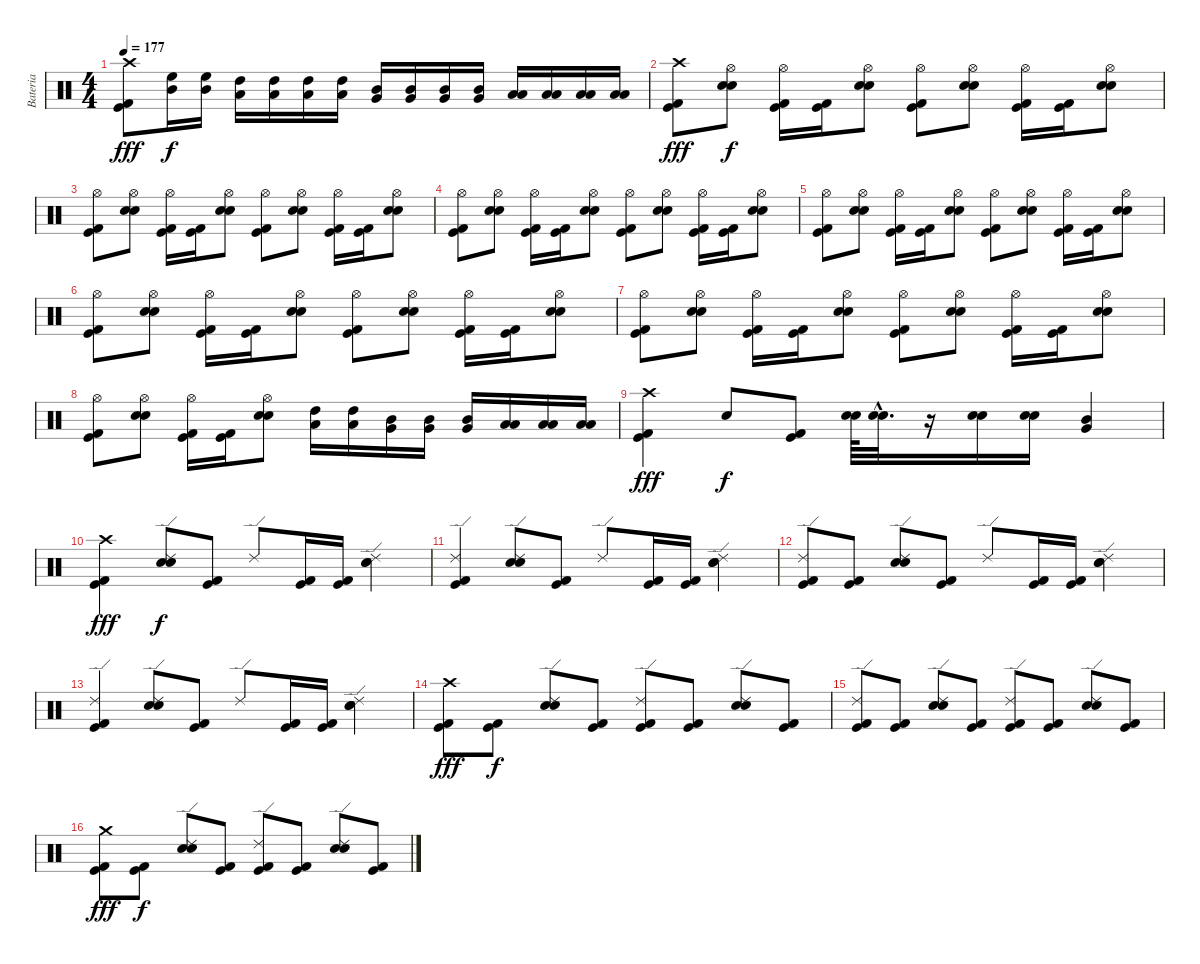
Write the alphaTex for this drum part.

\track ("Bateria" "Bateria") {instrument percussion}
\staff {score}
\articulation defaults
\ts (4 4)
\tempo 177
\clef neutral
\ks c
("Crash high (hit)" "Kick (hit) 2" "Kick (hit)").8{dy fff} ("High Floor Tom (hit)" "Mid Tom (hit)").16{dy f} ("High Floor Tom (hit)" "Mid Tom (hit)").16 ("High Tom (hit)" "Low Tom (hit)").16 ("High Tom (hit)" "Low Tom (hit)").16 ("High Tom (hit)" "Low Tom (hit)").16 ("High Tom (hit)" "Low Tom (hit)").16 ("Mid Tom (hit)" "Very Low Tom (hit)").16 ("Mid Tom (hit)" "Very Low Tom (hit)").16 ("Mid Tom (hit)" "Very Low Tom (hit)").16 ("Mid Tom (hit)" "Very Low Tom (hit)").16 ("Low Tom (hit)" "Low Floor Tom (hit)").16 ("Low Tom (hit)" "Low Floor Tom (hit)").16 ("Low Tom (hit)" "Low Floor Tom (hit)").16 ("Low Tom (hit)" "Low Floor Tom (hit)").16 |
("Crash high (hit)" "Kick (hit) 2" "Kick (hit)").8{dy fff} ("Hi-Hat (open)" "Electric Snare (hit)" "Snare (hit) 2").8{dy f} ("Hi-Hat (open)" "Kick (hit) 2" "Kick (hit)").16 ("Kick (hit) 2" "Kick (hit)").16 ("Hi-Hat (open)" "Electric Snare (hit)" "Snare (hit) 2").8 ("Hi-Hat (open)" "Kick (hit) 2" "Kick (hit)").8 ("Hi-Hat (open)" "Electric Snare (hit)" "Snare (hit) 2").8 ("Hi-Hat (open)" "Kick (hit) 2" "Kick (hit)").16 ("Kick (hit) 2" "Kick (hit)").16 ("Hi-Hat (open)" "Electric Snare (hit)" "Snare (hit) 2").8 |
("Hi-Hat (open)" "Kick (hit) 2" "Kick (hit)").8 ("Hi-Hat (open)" "Electric Snare (hit)" "Snare (hit) 2").8 ("Hi-Hat (open)" "Kick (hit) 2" "Kick (hit)").16 ("Kick (hit) 2" "Kick (hit)").16 ("Hi-Hat (open)" "Electric Snare (hit)" "Snare (hit) 2").8 ("Hi-Hat (open)" "Kick (hit) 2" "Kick (hit)").8 ("Hi-Hat (open)" "Electric Snare (hit)" "Snare (hit) 2").8 ("Hi-Hat (open)" "Kick (hit) 2" "Kick (hit)").16 ("Kick (hit) 2" "Kick (hit)").16 ("Hi-Hat (open)" "Electric Snare (hit)" "Snare (hit) 2").8 |
("Hi-Hat (open)" "Kick (hit) 2" "Kick (hit)").8 ("Hi-Hat (open)" "Electric Snare (hit)" "Snare (hit) 2").8 ("Hi-Hat (open)" "Kick (hit) 2" "Kick (hit)").16 ("Kick (hit) 2" "Kick (hit)").16 ("Hi-Hat (open)" "Electric Snare (hit)" "Snare (hit) 2").8 ("Hi-Hat (open)" "Kick (hit) 2" "Kick (hit)").8 ("Hi-Hat (open)" "Electric Snare (hit)" "Snare (hit) 2").8 ("Hi-Hat (open)" "Kick (hit) 2" "Kick (hit)").16 ("Kick (hit) 2" "Kick (hit)").16 ("Hi-Hat (open)" "Electric Snare (hit)" "Snare (hit) 2").8 |
("Hi-Hat (open)" "Kick (hit) 2" "Kick (hit)").8 ("Hi-Hat (open)" "Electric Snare (hit)" "Snare (hit) 2").8 ("Hi-Hat (open)" "Kick (hit) 2" "Kick (hit)").16 ("Kick (hit) 2" "Kick (hit)").16 ("Hi-Hat (open)" "Electric Snare (hit)" "Snare (hit) 2").8 ("Hi-Hat (open)" "Kick (hit) 2" "Kick (hit)").8 ("Hi-Hat (open)" "Electric Snare (hit)" "Snare (hit) 2").8 ("Hi-Hat (open)" "Kick (hit) 2" "Kick (hit)").16 ("Kick (hit) 2" "Kick (hit)").16 ("Hi-Hat (open)" "Electric Snare (hit)" "Snare (hit) 2").8 |
("Hi-Hat (open)" "Kick (hit) 2" "Kick (hit)").8 ("Hi-Hat (open)" "Electric Snare (hit)" "Snare (hit) 2").8 ("Hi-Hat (open)" "Kick (hit) 2" "Kick (hit)").16 ("Kick (hit) 2" "Kick (hit)").16 ("Hi-Hat (open)" "Electric Snare (hit)" "Snare (hit) 2").8 ("Hi-Hat (open)" "Kick (hit) 2" "Kick (hit)").8 ("Hi-Hat (open)" "Electric Snare (hit)" "Snare (hit) 2").8 ("Hi-Hat (open)" "Kick (hit) 2" "Kick (hit)").16 ("Kick (hit) 2" "Kick (hit)").16 ("Hi-Hat (open)" "Electric Snare (hit)" "Snare (hit) 2").8 |
("Hi-Hat (open)" "Kick (hit) 2" "Kick (hit)").8 ("Hi-Hat (open)" "Electric Snare (hit)" "Snare (hit) 2").8 ("Hi-Hat (open)" "Kick (hit) 2" "Kick (hit)").16 ("Kick (hit) 2" "Kick (hit)").16 ("Hi-Hat (open)" "Electric Snare (hit)" "Snare (hit) 2").8 ("Hi-Hat (open)" "Kick (hit) 2" "Kick (hit)").8 ("Hi-Hat (open)" "Electric Snare (hit)" "Snare (hit) 2").8 ("Hi-Hat (open)" "Kick (hit) 2" "Kick (hit)").16 ("Kick (hit) 2" "Kick (hit)").16 ("Hi-Hat (open)" "Electric Snare (hit)" "Snare (hit) 2").8 |
("Hi-Hat (open)" "Kick (hit) 2" "Kick (hit)").8 ("Hi-Hat (open)" "Electric Snare (hit)" "Snare (hit) 2").8 ("Hi-Hat (open)" "Kick (hit) 2" "Kick (hit)").16 ("Kick (hit) 2" "Kick (hit)").16 ("Hi-Hat (open)" "Electric Snare (hit)" "Snare (hit) 2").8 ("High Tom (hit)" "Low Tom (hit)").16 ("High Tom (hit)" "Low Tom (hit)").16 ("Mid Tom (hit)" "Very Low Tom (hit)").16 ("Mid Tom (hit)" "Very Low Tom (hit)").16 ("Mid Tom (hit)" "Very Low Tom (hit)").16 ("Low Tom (hit)" "Low Floor Tom (hit)").16 ("Low Tom (hit)" "Low Floor Tom (hit)").16 ("Low Tom (hit)" "Low Floor Tom (hit)").16 |
("Crash high (hit)" "Kick (hit) 2" "Kick (hit)").4{dy fff} "Snare (hit)"{x}.8{dy f} ("Kick (hit) 2" "Kick (hit)").8 ("Electric Snare (hit)" "Snare (hit) 2").64 ("Electric Snare (hit)"{hac} "Snare (hit) 2"{hac}).32{d} r.16 ("Electric Snare (hit)" "Snare (hit) 2").16 ("Electric Snare (hit)" "Snare (hit) 2").16 ("Mid Tom (hit)" "Very Low Tom (hit)").4 |
("Crash high (hit)" "Kick (hit) 2" "Kick (hit)").4{dy fff} ("Ride (edge) 2" "Electric Snare (hit)" "Snare (hit) 2").8{dy f} ("Kick (hit) 2" "Kick (hit)").8 "Ride (edge) 2".8 ("Kick (hit) 2" "Kick (hit)").16 ("Kick (hit) 2" "Kick (hit)").16 ("Ride (edge) 2" "Electric Snare (hit)" "Snare (hit) 2").4 |
("Ride (edge) 2" "Kick (hit) 2" "Kick (hit)").4 ("Ride (edge) 2" "Electric Snare (hit)" "Snare (hit) 2").8 ("Kick (hit) 2" "Kick (hit)").8 "Ride (edge) 2".8 ("Kick (hit) 2" "Kick (hit)").16 ("Kick (hit) 2" "Kick (hit)").16 ("Ride (edge) 2" "Electric Snare (hit)" "Snare (hit) 2").4 |
("Ride (edge) 2" "Kick (hit) 2" "Kick (hit)").8 ("Kick (hit) 2" "Kick (hit)").8 ("Ride (edge) 2" "Electric Snare (hit)" "Snare (hit) 2").8 ("Kick (hit) 2" "Kick (hit)").8 "Ride (edge) 2".8 ("Kick (hit) 2" "Kick (hit)").16 ("Kick (hit) 2" "Kick (hit)").16 ("Ride (edge) 2" "Electric Snare (hit)" "Snare (hit) 2").4 |
("Ride (edge) 2" "Kick (hit) 2" "Kick (hit)").4 ("Ride (edge) 2" "Electric Snare (hit)" "Snare (hit) 2").8 ("Kick (hit) 2" "Kick (hit)").8 "Ride (edge) 2".8 ("Kick (hit) 2" "Kick (hit)").16 ("Kick (hit) 2" "Kick (hit)").16 ("Ride (edge) 2" "Electric Snare (hit)" "Snare (hit) 2").4 |
("Crash high (hit)" "Kick (hit) 2" "Kick (hit)").8{dy fff} ("Kick (hit) 2" "Kick (hit)").8{dy f} ("Ride (edge) 2" "Electric Snare (hit)" "Snare (hit) 2").8 ("Kick (hit) 2" "Kick (hit)").8 ("Ride (edge) 2" "Kick (hit) 2" "Kick (hit)").8 ("Kick (hit) 2" "Kick (hit)").8 ("Ride (edge) 2" "Electric Snare (hit)" "Snare (hit) 2").8 ("Kick (hit) 2" "Kick (hit)").8 |
("Ride (edge) 2" "Kick (hit) 2" "Kick (hit)").8 ("Kick (hit) 2" "Kick (hit)").8 ("Ride (edge) 2" "Electric Snare (hit)" "Snare (hit) 2").8 ("Kick (hit) 2" "Kick (hit)").8 ("Ride (edge) 2" "Kick (hit) 2" "Kick (hit)").8 ("Kick (hit) 2" "Kick (hit)").8 ("Ride (edge) 2" "Electric Snare (hit)" "Snare (hit) 2").8 ("Kick (hit) 2" "Kick (hit)").8 |
("Crash medium (hit)" "Kick (hit) 2" "Kick (hit)").8{dy fff} ("Kick (hit) 2" "Kick (hit)").8{dy f} ("Ride (edge) 2" "Electric Snare (hit)" "Snare (hit) 2").8 ("Kick (hit) 2" "Kick (hit)").8 ("Ride (edge) 2" "Kick (hit) 2" "Kick (hit)").8 ("Kick (hit) 2" "Kick (hit)").8 ("Ride (edge) 2" "Electric Snare (hit)" "Snare (hit) 2").8 ("Kick (hit) 2" "Kick (hit)").8
